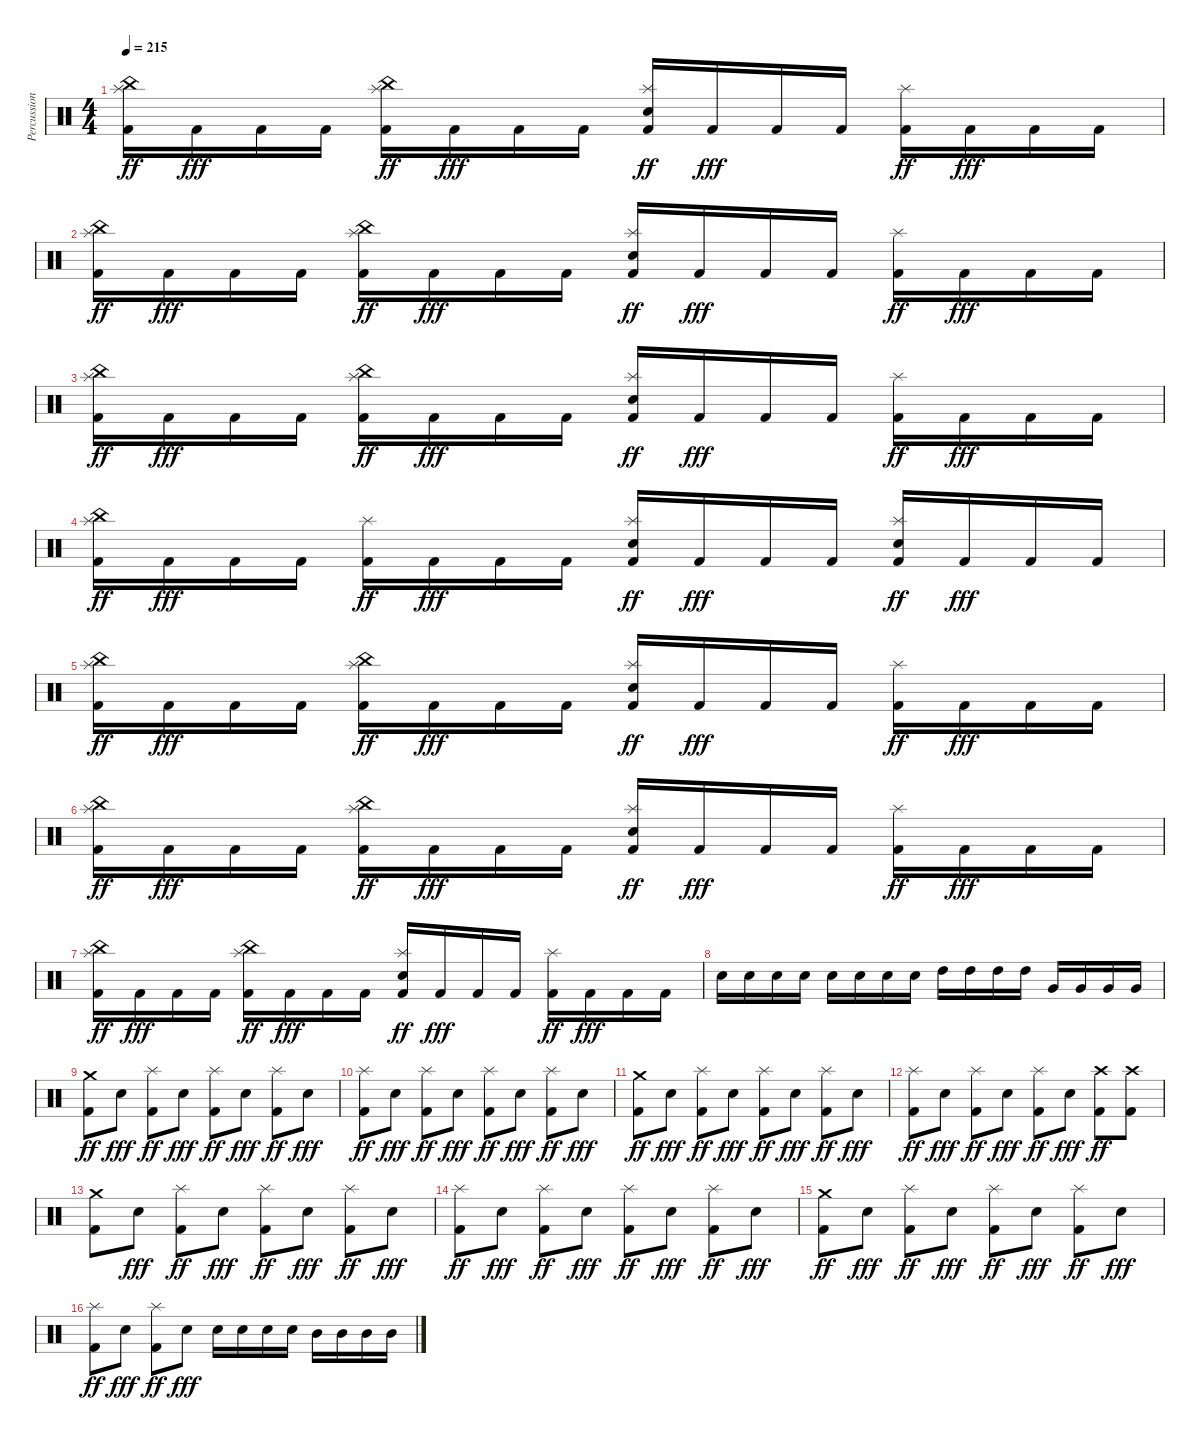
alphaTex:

\track ("Percussion" "Percussion") {instrument percussion}
\staff {score}
\articulation defaults
\ts (4 4)
\tempo 215
\clef neutral
\ks c
("Kick (hit) 2" "Splash (hit)" "China (hit)").16{dy ff} "Kick (hit) 2".16{dy fff} "Kick (hit) 2".16 "Kick (hit) 2".16 ("Kick (hit) 2" "Splash (hit)" "China (hit)").16{dy ff} "Kick (hit) 2".16{dy fff} "Kick (hit) 2".16 "Kick (hit) 2".16 ("Kick (hit) 2" "Electric Snare (hit)" "Splash (hit)").16{dy ff} "Kick (hit) 2".16{dy fff} "Kick (hit) 2".16 "Kick (hit) 2".16 ("Kick (hit) 2" "Splash (hit)").16{dy ff} "Kick (hit) 2".16{dy fff} "Kick (hit) 2".16 "Kick (hit) 2".16 |
("Kick (hit) 2" "Splash (hit)" "China (hit)").16{dy ff} "Kick (hit) 2".16{dy fff} "Kick (hit) 2".16 "Kick (hit) 2".16 ("Kick (hit) 2" "Splash (hit)" "China (hit)").16{dy ff} "Kick (hit) 2".16{dy fff} "Kick (hit) 2".16 "Kick (hit) 2".16 ("Kick (hit) 2" "Electric Snare (hit)" "Splash (hit)").16{dy ff} "Kick (hit) 2".16{dy fff} "Kick (hit) 2".16 "Kick (hit) 2".16 ("Kick (hit) 2" "Splash (hit)").16{dy ff} "Kick (hit) 2".16{dy fff} "Kick (hit) 2".16 "Kick (hit) 2".16 |
("Kick (hit) 2" "Splash (hit)" "China (hit)").16{dy ff} "Kick (hit) 2".16{dy fff} "Kick (hit) 2".16 "Kick (hit) 2".16 ("Kick (hit) 2" "Splash (hit)" "China (hit)").16{dy ff} "Kick (hit) 2".16{dy fff} "Kick (hit) 2".16 "Kick (hit) 2".16 ("Kick (hit) 2" "Electric Snare (hit)" "Splash (hit)").16{dy ff} "Kick (hit) 2".16{dy fff} "Kick (hit) 2".16 "Kick (hit) 2".16 ("Kick (hit) 2" "Splash (hit)").16{dy ff} "Kick (hit) 2".16{dy fff} "Kick (hit) 2".16 "Kick (hit) 2".16 |
("Kick (hit) 2" "Splash (hit)" "China (hit)").16{dy ff} "Kick (hit) 2".16{dy fff} "Kick (hit) 2".16 "Kick (hit) 2".16 ("Kick (hit) 2" "Splash (hit)").16{dy ff} "Kick (hit) 2".16{dy fff} "Kick (hit) 2".16 "Kick (hit) 2".16 ("Kick (hit) 2" "Electric Snare (hit)" "Splash (hit)").16{dy ff} "Kick (hit) 2".16{dy fff} "Kick (hit) 2".16 "Kick (hit) 2".16 ("Kick (hit) 2" "Electric Snare (hit)" "Splash (hit)").16{dy ff} "Kick (hit) 2".16{dy fff} "Kick (hit) 2".16 "Kick (hit) 2".16 |
("Kick (hit) 2" "Splash (hit)" "China (hit)").16{dy ff} "Kick (hit) 2".16{dy fff} "Kick (hit) 2".16 "Kick (hit) 2".16 ("Kick (hit) 2" "Splash (hit)" "China (hit)").16{dy ff} "Kick (hit) 2".16{dy fff} "Kick (hit) 2".16 "Kick (hit) 2".16 ("Kick (hit) 2" "Electric Snare (hit)" "Splash (hit)").16{dy ff} "Kick (hit) 2".16{dy fff} "Kick (hit) 2".16 "Kick (hit) 2".16 ("Kick (hit) 2" "Splash (hit)").16{dy ff} "Kick (hit) 2".16{dy fff} "Kick (hit) 2".16 "Kick (hit) 2".16 |
("Kick (hit) 2" "Splash (hit)" "China (hit)").16{dy ff} "Kick (hit) 2".16{dy fff} "Kick (hit) 2".16 "Kick (hit) 2".16 ("Kick (hit) 2" "Splash (hit)" "China (hit)").16{dy ff} "Kick (hit) 2".16{dy fff} "Kick (hit) 2".16 "Kick (hit) 2".16 ("Kick (hit) 2" "Electric Snare (hit)" "Splash (hit)").16{dy ff} "Kick (hit) 2".16{dy fff} "Kick (hit) 2".16 "Kick (hit) 2".16 ("Kick (hit) 2" "Splash (hit)").16{dy ff} "Kick (hit) 2".16{dy fff} "Kick (hit) 2".16 "Kick (hit) 2".16 |
("Kick (hit) 2" "Splash (hit)" "China (hit)").16{dy ff} "Kick (hit) 2".16{dy fff} "Kick (hit) 2".16 "Kick (hit) 2".16 ("Kick (hit) 2" "Splash (hit)" "China (hit)").16{dy ff} "Kick (hit) 2".16{dy fff} "Kick (hit) 2".16 "Kick (hit) 2".16 ("Kick (hit) 2" "Electric Snare (hit)" "Splash (hit)").16{dy ff} "Kick (hit) 2".16{dy fff} "Kick (hit) 2".16 "Kick (hit) 2".16 ("Kick (hit) 2" "Splash (hit)").16{dy ff} "Kick (hit) 2".16{dy fff} "Kick (hit) 2".16 "Kick (hit) 2".16 |
"Electric Snare (hit)".16 "Electric Snare (hit)".16 "Electric Snare (hit)".16 "Electric Snare (hit)".16 "Electric Snare (hit)".16 "Electric Snare (hit)".16 "Electric Snare (hit)".16 "Electric Snare (hit)".16 "High Tom (hit)".16 "High Tom (hit)".16 "High Tom (hit)".16 "High Tom (hit)".16 "Very Low Tom (hit)".16 "Very Low Tom (hit)".16 "Very Low Tom (hit)".16 "Very Low Tom (hit)".16 |
("Kick (hit) 2" "Crash medium (hit)").8{dy ff} "Electric Snare (hit)".8{dy fff} ("Kick (hit) 2" "Splash (hit)").8{dy ff} "Electric Snare (hit)".8{dy fff} ("Kick (hit) 2" "Splash (hit)").8{dy ff} "Electric Snare (hit)".8{dy fff} ("Kick (hit) 2" "Splash (hit)").8{dy ff} "Electric Snare (hit)".8{dy fff} |
("Kick (hit) 2" "Splash (hit)").8{dy ff} "Electric Snare (hit)".8{dy fff} ("Kick (hit) 2" "Splash (hit)").8{dy ff} "Electric Snare (hit)".8{dy fff} ("Kick (hit) 2" "Splash (hit)").8{dy ff} "Electric Snare (hit)".8{dy fff} ("Kick (hit) 2" "Splash (hit)").8{dy ff} "Electric Snare (hit)".8{dy fff} |
("Kick (hit) 2" "Crash medium (hit)").8{dy ff} "Electric Snare (hit)".8{dy fff} ("Kick (hit) 2" "Splash (hit)").8{dy ff} "Electric Snare (hit)".8{dy fff} ("Kick (hit) 2" "Splash (hit)").8{dy ff} "Electric Snare (hit)".8{dy fff} ("Kick (hit) 2" "Splash (hit)").8{dy ff} "Electric Snare (hit)".8{dy fff} |
("Kick (hit) 2" "Splash (hit)").8{dy ff} "Electric Snare (hit)".8{dy fff} ("Kick (hit) 2" "Splash (hit)").8{dy ff} "Electric Snare (hit)".8{dy fff} ("Kick (hit) 2" "Splash (hit)").8{dy ff} "Electric Snare (hit)".8{dy fff} ("Kick (hit) 2" "Crash high (hit)").8{dy ff} ("Kick (hit) 2" "Crash high (hit)").8 |
("Kick (hit) 2" "Crash medium (hit)").8 "Electric Snare (hit)".8{dy fff} ("Kick (hit) 2" "Splash (hit)").8{dy ff} "Electric Snare (hit)".8{dy fff} ("Kick (hit) 2" "Splash (hit)").8{dy ff} "Electric Snare (hit)".8{dy fff} ("Kick (hit) 2" "Splash (hit)").8{dy ff} "Electric Snare (hit)".8{dy fff} |
("Kick (hit) 2" "Splash (hit)").8{dy ff} "Electric Snare (hit)".8{dy fff} ("Kick (hit) 2" "Splash (hit)").8{dy ff} "Electric Snare (hit)".8{dy fff} ("Kick (hit) 2" "Splash (hit)").8{dy ff} "Electric Snare (hit)".8{dy fff} ("Kick (hit) 2" "Splash (hit)").8{dy ff} "Electric Snare (hit)".8{dy fff} |
("Kick (hit) 2" "Crash medium (hit)").8{dy ff} "Electric Snare (hit)".8{dy fff} ("Kick (hit) 2" "Splash (hit)").8{dy ff} "Electric Snare (hit)".8{dy fff} ("Kick (hit) 2" "Splash (hit)").8{dy ff} "Electric Snare (hit)".8{dy fff} ("Kick (hit) 2" "Splash (hit)").8{dy ff} "Electric Snare (hit)".8{dy fff} |
("Kick (hit) 2" "Splash (hit)").8{dy ff} "Electric Snare (hit)".8{dy fff} ("Kick (hit) 2" "Splash (hit)").8{dy ff} "Electric Snare (hit)".8{dy fff} "Electric Snare (hit)".16 "Electric Snare (hit)".16 "Electric Snare (hit)".16 "Electric Snare (hit)".16 "Mid Tom (hit)".16 "Mid Tom (hit)".16 "Mid Tom (hit)".16 "Mid Tom (hit)".16
